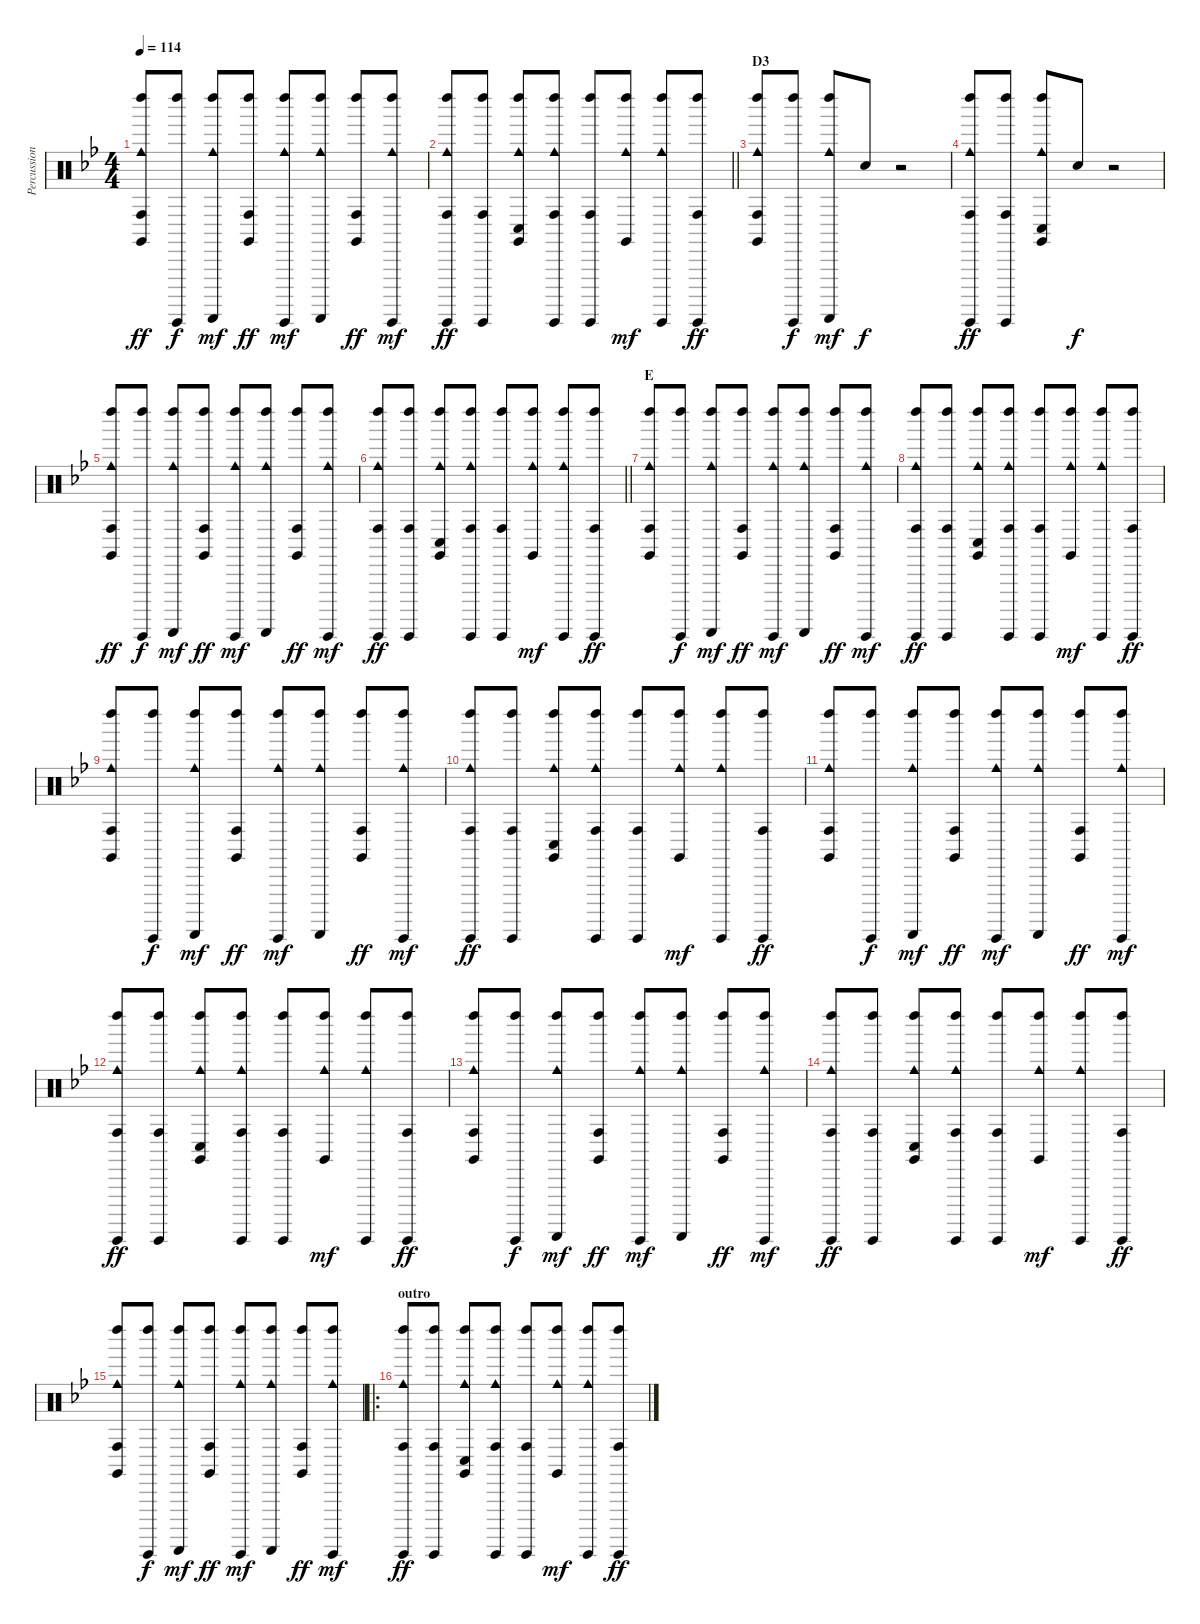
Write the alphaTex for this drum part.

\track ("Percussion" "Percussion") {instrument percussion}
\staff {score}
\articulation defaults
\ts (4 4)
\tempo 114
\clef neutral
\ks gminor
("Claves (hit)" "Cowbell medium (hit)" "Conga high (hit)" "Left Maraca (hit)").8{dy ff} ("Guiro (hit)" "Left Maraca (hit)").8{dy f} ("Guiro (scrap-return)" "Cowbell medium (hit)" "Left Maraca (hit)").8{dy mf} ("Claves (hit)" "Conga high (hit)" "Left Maraca (hit)").8{dy ff} ("Guiro (hit)" "Cowbell medium (hit)" "Left Maraca (hit)").8{dy mf} ("Guiro (scrap-return)" "Cowbell medium (hit)" "Left Maraca (hit)").8 ("Claves (hit)" "Conga high (hit)" "Left Maraca (hit)").8{dy ff} ("Guiro (hit)" "Cowbell medium (hit)" "Left Maraca (hit)").8{dy mf} |
\barLineRight lightlight
("Guiro (hit)" "Cowbell medium (hit)" "Conga high (hit)" "Left Maraca (hit)").8{dy ff} ("Guiro (hit)" "Conga high (hit)" "Left Maraca (hit)").8 ("Claves (hit)" "Cowbell medium (hit)" "Conga low (hit)" "Left Maraca (hit)").8 ("Guiro (hit)" "Cowbell medium (hit)" "Conga high (hit)" "Left Maraca (hit)").8 ("Guiro (hit)" "Conga high (hit)" "Left Maraca (hit)").8 ("Claves (hit)" "Cowbell medium (hit)" "Left Maraca (hit)").8{dy mf} ("Guiro (hit)" "Cowbell medium (hit)" "Left Maraca (hit)").8 ("Guiro (hit)" "Conga high (hit)" "Left Maraca (hit)").8{dy ff} |
\section ("" "D3")
("Claves (hit)" "Cowbell medium (hit)" "Conga high (hit)" "Left Maraca (hit)").8 ("Guiro (hit)" "Left Maraca (hit)").8{dy f} ("Guiro (scrap-return)" "Cowbell medium (hit)" "Left Maraca (hit)").8{dy mf} "Hand Clap (hit)".8{dy f} r.2 |
("Guiro (hit)" "Cowbell medium (hit)" "Conga high (hit)" "Left Maraca (hit)").8{dy ff} ("Guiro (hit)" "Conga high (hit)" "Left Maraca (hit)").8 ("Claves (hit)" "Cowbell medium (hit)" "Conga low (hit)" "Left Maraca (hit)").8 "Hand Clap (hit)".8{dy f} r.2 |
("Claves (hit)" "Cowbell medium (hit)" "Conga high (hit)" "Left Maraca (hit)").8{dy ff} ("Guiro (hit)" "Left Maraca (hit)").8{dy f} ("Guiro (scrap-return)" "Cowbell medium (hit)" "Left Maraca (hit)").8{dy mf} ("Claves (hit)" "Conga high (hit)" "Left Maraca (hit)").8{dy ff} ("Guiro (hit)" "Cowbell medium (hit)" "Left Maraca (hit)").8{dy mf} ("Guiro (scrap-return)" "Cowbell medium (hit)" "Left Maraca (hit)").8 ("Claves (hit)" "Conga high (hit)" "Left Maraca (hit)").8{dy ff} ("Guiro (hit)" "Cowbell medium (hit)" "Left Maraca (hit)").8{dy mf} |
\barLineRight lightlight
("Guiro (hit)" "Cowbell medium (hit)" "Conga high (hit)" "Left Maraca (hit)").8{dy ff} ("Guiro (hit)" "Conga high (hit)" "Left Maraca (hit)").8 ("Claves (hit)" "Cowbell medium (hit)" "Conga low (hit)" "Left Maraca (hit)").8 ("Guiro (hit)" "Cowbell medium (hit)" "Conga high (hit)" "Left Maraca (hit)").8 ("Guiro (hit)" "Conga high (hit)" "Left Maraca (hit)").8 ("Claves (hit)" "Cowbell medium (hit)" "Left Maraca (hit)").8{dy mf} ("Guiro (hit)" "Cowbell medium (hit)" "Left Maraca (hit)").8 ("Guiro (hit)" "Conga high (hit)" "Left Maraca (hit)").8{dy ff} |
\section ("" "E")
("Claves (hit)" "Cowbell medium (hit)" "Conga high (hit)" "Left Maraca (hit)").8 ("Guiro (hit)" "Left Maraca (hit)").8{dy f} ("Guiro (scrap-return)" "Cowbell medium (hit)" "Left Maraca (hit)").8{dy mf} ("Claves (hit)" "Conga high (hit)" "Left Maraca (hit)").8{dy ff} ("Guiro (hit)" "Cowbell medium (hit)" "Left Maraca (hit)").8{dy mf} ("Guiro (scrap-return)" "Cowbell medium (hit)" "Left Maraca (hit)").8 ("Claves (hit)" "Conga high (hit)" "Left Maraca (hit)").8{dy ff} ("Guiro (hit)" "Cowbell medium (hit)" "Left Maraca (hit)").8{dy mf} |
("Guiro (hit)" "Cowbell medium (hit)" "Conga high (hit)" "Left Maraca (hit)").8{dy ff} ("Guiro (hit)" "Conga high (hit)" "Left Maraca (hit)").8 ("Claves (hit)" "Cowbell medium (hit)" "Conga low (hit)" "Left Maraca (hit)").8 ("Guiro (hit)" "Cowbell medium (hit)" "Conga high (hit)" "Left Maraca (hit)").8 ("Guiro (hit)" "Conga high (hit)" "Left Maraca (hit)").8 ("Claves (hit)" "Cowbell medium (hit)" "Left Maraca (hit)").8{dy mf} ("Guiro (hit)" "Cowbell medium (hit)" "Left Maraca (hit)").8 ("Guiro (hit)" "Conga high (hit)" "Left Maraca (hit)").8{dy ff} |
("Claves (hit)" "Cowbell medium (hit)" "Conga high (hit)" "Left Maraca (hit)").8 ("Guiro (hit)" "Left Maraca (hit)").8{dy f} ("Guiro (scrap-return)" "Cowbell medium (hit)" "Left Maraca (hit)").8{dy mf} ("Claves (hit)" "Conga high (hit)" "Left Maraca (hit)").8{dy ff} ("Guiro (hit)" "Cowbell medium (hit)" "Left Maraca (hit)").8{dy mf} ("Guiro (scrap-return)" "Cowbell medium (hit)" "Left Maraca (hit)").8 ("Claves (hit)" "Conga high (hit)" "Left Maraca (hit)").8{dy ff} ("Guiro (hit)" "Cowbell medium (hit)" "Left Maraca (hit)").8{dy mf} |
("Guiro (hit)" "Cowbell medium (hit)" "Conga high (hit)" "Left Maraca (hit)").8{dy ff} ("Guiro (hit)" "Conga high (hit)" "Left Maraca (hit)").8 ("Claves (hit)" "Cowbell medium (hit)" "Conga low (hit)" "Left Maraca (hit)").8 ("Guiro (hit)" "Cowbell medium (hit)" "Conga high (hit)" "Left Maraca (hit)").8 ("Guiro (hit)" "Conga high (hit)" "Left Maraca (hit)").8 ("Claves (hit)" "Cowbell medium (hit)" "Left Maraca (hit)").8{dy mf} ("Guiro (hit)" "Cowbell medium (hit)" "Left Maraca (hit)").8 ("Guiro (hit)" "Conga high (hit)" "Left Maraca (hit)").8{dy ff} |
("Claves (hit)" "Cowbell medium (hit)" "Conga high (hit)" "Left Maraca (hit)").8 ("Guiro (hit)" "Left Maraca (hit)").8{dy f} ("Guiro (scrap-return)" "Cowbell medium (hit)" "Left Maraca (hit)").8{dy mf} ("Claves (hit)" "Conga high (hit)" "Left Maraca (hit)").8{dy ff} ("Guiro (hit)" "Cowbell medium (hit)" "Left Maraca (hit)").8{dy mf} ("Guiro (scrap-return)" "Cowbell medium (hit)" "Left Maraca (hit)").8 ("Claves (hit)" "Conga high (hit)" "Left Maraca (hit)").8{dy ff} ("Guiro (hit)" "Cowbell medium (hit)" "Left Maraca (hit)").8{dy mf} |
("Guiro (hit)" "Cowbell medium (hit)" "Conga high (hit)" "Left Maraca (hit)").8{dy ff} ("Guiro (hit)" "Conga high (hit)" "Left Maraca (hit)").8 ("Claves (hit)" "Cowbell medium (hit)" "Conga low (hit)" "Left Maraca (hit)").8 ("Guiro (hit)" "Cowbell medium (hit)" "Conga high (hit)" "Left Maraca (hit)").8 ("Guiro (hit)" "Conga high (hit)" "Left Maraca (hit)").8 ("Claves (hit)" "Cowbell medium (hit)" "Left Maraca (hit)").8{dy mf} ("Guiro (hit)" "Cowbell medium (hit)" "Left Maraca (hit)").8 ("Guiro (hit)" "Conga high (hit)" "Left Maraca (hit)").8{dy ff} |
("Claves (hit)" "Cowbell medium (hit)" "Conga high (hit)" "Left Maraca (hit)").8 ("Guiro (hit)" "Left Maraca (hit)").8{dy f} ("Guiro (scrap-return)" "Cowbell medium (hit)" "Left Maraca (hit)").8{dy mf} ("Claves (hit)" "Conga high (hit)" "Left Maraca (hit)").8{dy ff} ("Guiro (hit)" "Cowbell medium (hit)" "Left Maraca (hit)").8{dy mf} ("Guiro (scrap-return)" "Cowbell medium (hit)" "Left Maraca (hit)").8 ("Claves (hit)" "Conga high (hit)" "Left Maraca (hit)").8{dy ff} ("Guiro (hit)" "Cowbell medium (hit)" "Left Maraca (hit)").8{dy mf} |
("Guiro (hit)" "Cowbell medium (hit)" "Conga high (hit)" "Left Maraca (hit)").8{dy ff} ("Guiro (hit)" "Conga high (hit)" "Left Maraca (hit)").8 ("Claves (hit)" "Cowbell medium (hit)" "Conga low (hit)" "Left Maraca (hit)").8 ("Guiro (hit)" "Cowbell medium (hit)" "Conga high (hit)" "Left Maraca (hit)").8 ("Guiro (hit)" "Conga high (hit)" "Left Maraca (hit)").8 ("Claves (hit)" "Cowbell medium (hit)" "Left Maraca (hit)").8{dy mf} ("Guiro (hit)" "Cowbell medium (hit)" "Left Maraca (hit)").8 ("Guiro (hit)" "Conga high (hit)" "Left Maraca (hit)").8{dy ff} |
("Claves (hit)" "Cowbell medium (hit)" "Conga high (hit)" "Left Maraca (hit)").8 ("Guiro (hit)" "Left Maraca (hit)").8{dy f} ("Guiro (scrap-return)" "Cowbell medium (hit)" "Left Maraca (hit)").8{dy mf} ("Claves (hit)" "Conga high (hit)" "Left Maraca (hit)").8{dy ff} ("Guiro (hit)" "Cowbell medium (hit)" "Left Maraca (hit)").8{dy mf} ("Guiro (scrap-return)" "Cowbell medium (hit)" "Left Maraca (hit)").8 ("Claves (hit)" "Conga high (hit)" "Left Maraca (hit)").8{dy ff} ("Guiro (hit)" "Cowbell medium (hit)" "Left Maraca (hit)").8{dy mf} |
\ro
\section ("" "outro")
("Guiro (hit)" "Cowbell medium (hit)" "Conga high (hit)" "Left Maraca (hit)").8{dy ff} ("Guiro (hit)" "Conga high (hit)" "Left Maraca (hit)").8 ("Claves (hit)" "Cowbell medium (hit)" "Conga low (hit)" "Left Maraca (hit)").8 ("Guiro (hit)" "Cowbell medium (hit)" "Conga high (hit)" "Left Maraca (hit)").8 ("Guiro (hit)" "Conga high (hit)" "Left Maraca (hit)").8 ("Claves (hit)" "Cowbell medium (hit)" "Left Maraca (hit)").8{dy mf} ("Guiro (hit)" "Cowbell medium (hit)" "Left Maraca (hit)").8 ("Guiro (hit)" "Conga high (hit)" "Left Maraca (hit)").8{dy ff}
